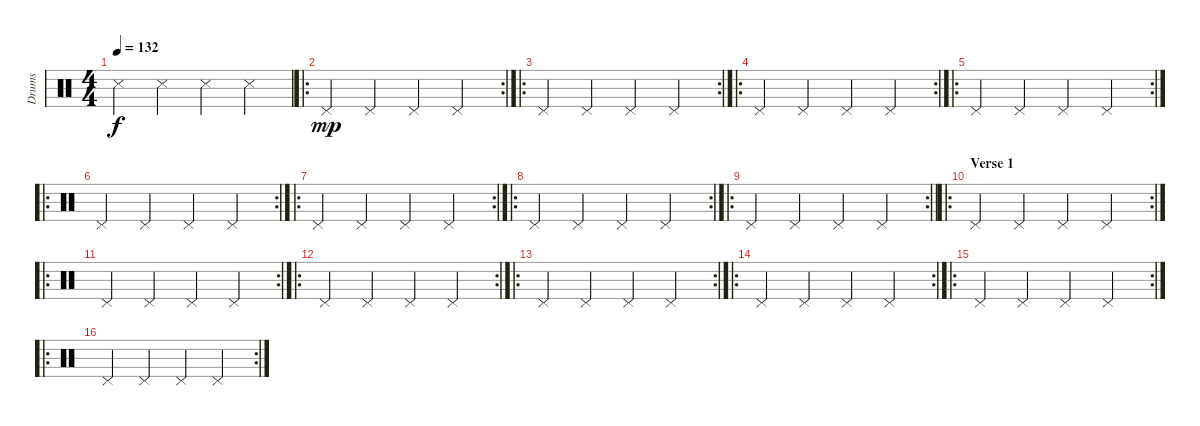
\track ("Drums" "Drums") {instrument percussion}
\staff {score}
\articulation defaults
\ts (4 4)
\tempo 132
\clef neutral
\ks c "Metronome (hit)".4{dy f} "Metronome (hit)".4 "Metronome (hit)".4 "Metronome (hit)".4
|
\ro
\rc 2 "Pedal Hi-Hat (hit)".4{dy mp} "Pedal Hi-Hat (hit)".4 "Pedal Hi-Hat (hit)".4 "Pedal Hi-Hat (hit)".4
|
\ro
\rc 2 "Pedal Hi-Hat (hit)".4 "Pedal Hi-Hat (hit)".4 "Pedal Hi-Hat (hit)".4 "Pedal Hi-Hat (hit)".4
|
\ro
\rc 2 "Pedal Hi-Hat (hit)".4 "Pedal Hi-Hat (hit)".4 "Pedal Hi-Hat (hit)".4 "Pedal Hi-Hat (hit)".4
|
\ro
\rc 2 "Pedal Hi-Hat (hit)".4 "Pedal Hi-Hat (hit)".4 "Pedal Hi-Hat (hit)".4 "Pedal Hi-Hat (hit)".4
|
\ro
\rc 2 "Pedal Hi-Hat (hit)".4 "Pedal Hi-Hat (hit)".4 "Pedal Hi-Hat (hit)".4 "Pedal Hi-Hat (hit)".4
|
\ro
\rc 2 "Pedal Hi-Hat (hit)".4 "Pedal Hi-Hat (hit)".4 "Pedal Hi-Hat (hit)".4 "Pedal Hi-Hat (hit)".4
|
\ro
\rc 2 "Pedal Hi-Hat (hit)".4 "Pedal Hi-Hat (hit)".4 "Pedal Hi-Hat (hit)".4 "Pedal Hi-Hat (hit)".4
|
\ro
\rc 2
\barLineRight lightlight "Pedal Hi-Hat (hit)".4 "Pedal Hi-Hat (hit)".4 "Pedal Hi-Hat (hit)".4 "Pedal Hi-Hat (hit)".4
|
\ro
\rc 2
\section ("" "Verse 1")
"Pedal Hi-Hat (hit)".4 "Pedal Hi-Hat (hit)".4 "Pedal Hi-Hat (hit)".4 "Pedal Hi-Hat (hit)".4 |
\ro
\rc 2 "Pedal Hi-Hat (hit)".4 "Pedal Hi-Hat (hit)".4 "Pedal Hi-Hat (hit)".4 "Pedal Hi-Hat (hit)".4
|
\ro
\rc 2 "Pedal Hi-Hat (hit)".4 "Pedal Hi-Hat (hit)".4 "Pedal Hi-Hat (hit)".4 "Pedal Hi-Hat (hit)".4
|
\ro
\rc 2 "Pedal Hi-Hat (hit)".4 "Pedal Hi-Hat (hit)".4 "Pedal Hi-Hat (hit)".4 "Pedal Hi-Hat (hit)".4
|
\ro
\rc 2 "Pedal Hi-Hat (hit)".4 "Pedal Hi-Hat (hit)".4 "Pedal Hi-Hat (hit)".4 "Pedal Hi-Hat (hit)".4
|
\ro
\rc 2 "Pedal Hi-Hat (hit)".4 "Pedal Hi-Hat (hit)".4 "Pedal Hi-Hat (hit)".4 "Pedal Hi-Hat (hit)".4
|
\ro
\rc 2 "Pedal Hi-Hat (hit)".4 "Pedal Hi-Hat (hit)".4 "Pedal Hi-Hat (hit)".4 "Pedal Hi-Hat (hit)".4
